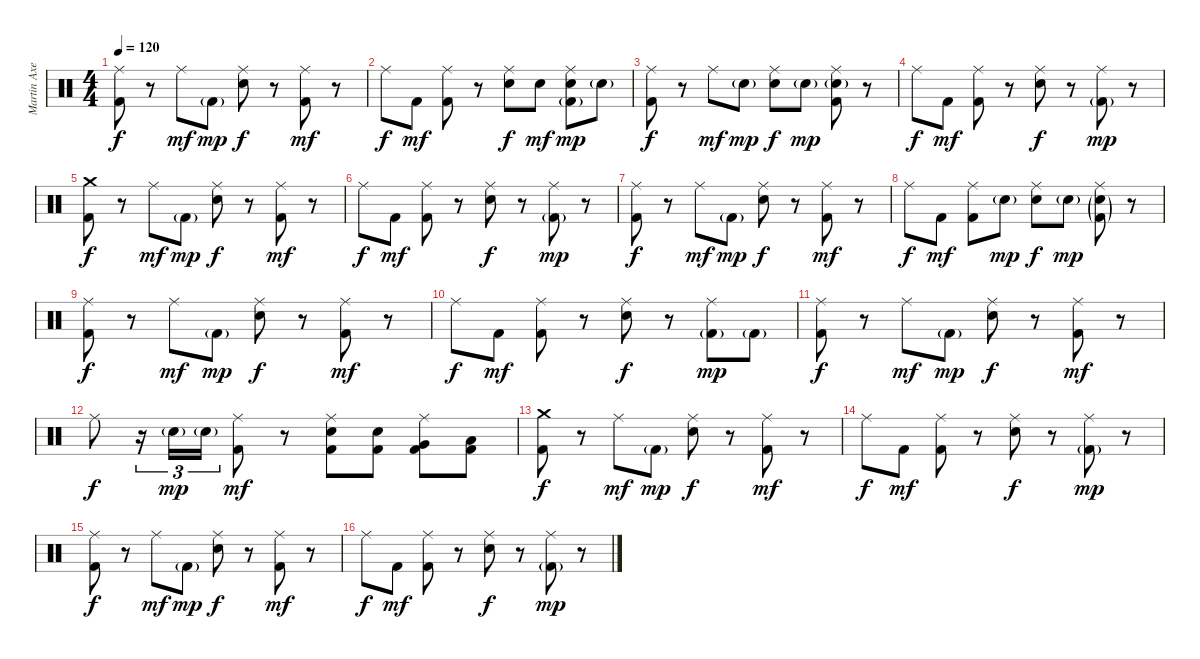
\track ("Martin Axenrot - Drums" "Martin Axe") {instrument percussion}
\staff {score}
\articulation defaults
\ts (4 4)
\tempo 120
\clef neutral
\ks c
("Ride (middle)" "Kick (hit) 2").8{dy f} r.8 "Ride (middle)".8{dy mf} "Kick (hit) 2"{g}.8{dy mp} ("Ride (middle)" "Snare (hit) 2").8{dy f} r.8 ("Ride (middle)" "Kick (hit) 2").8{dy mf} r.8 |
"Ride (middle)".8{dy f} "Kick (hit) 2".8{dy mf} ("Ride (middle)" "Kick (hit) 2").8 r.8 ("Ride (middle)" "Snare (hit) 2").8{dy f} "Snare (hit) 2".8{dy mf} ("Ride (middle)" "Snare (hit) 2" "Kick (hit) 2"{g}).8{dy mp} "Snare (hit) 2"{g}.8 |
("Ride (middle)" "Kick (hit) 2").8{dy f} r.8 "Ride (middle)".8{dy mf} "Snare (hit) 2"{g}.8{dy mp} ("Ride (middle)" "Snare (hit) 2").8{dy f} "Snare (hit) 2"{g}.8{dy mp} ("Ride (middle)" "Snare (hit) 2"{g} "Kick (hit) 2").8 r.8 |
"Ride (middle)".8{dy f} "Kick (hit) 2".8{dy mf} ("Ride (middle)" "Kick (hit) 2").8 r.8 ("Ride (middle)" "Snare (hit) 2").8{dy f} r.8 ("Ride (middle)" "Kick (hit) 2"{g}).8{dy mp} r.8 |
("Crash medium (hit)" "Kick (hit) 2").8{dy f} r.8 "Ride (middle)".8{dy mf} "Kick (hit) 2"{g}.8{dy mp} ("Ride (middle)" "Snare (hit) 2").8{dy f} r.8 ("Ride (middle)" "Kick (hit) 2").8{dy mf} r.8 |
"Ride (middle)".8{dy f} "Kick (hit) 2".8{dy mf} ("Ride (middle)" "Kick (hit) 2").8 r.8 ("Ride (middle)" "Snare (hit) 2").8{dy f} r.8 ("Ride (middle)" "Kick (hit) 2"{g}).8{dy mp} r.8 |
("Ride (middle)" "Kick (hit) 2").8{dy f} r.8 "Ride (middle)".8{dy mf} "Kick (hit) 2"{g}.8{dy mp} ("Ride (middle)" "Snare (hit) 2").8{dy f} r.8 ("Ride (middle)" "Kick (hit) 2").8{dy mf} r.8 |
"Ride (middle)".8{dy f} "Kick (hit) 2".8{dy mf} ("Ride (middle)" "Kick (hit) 2").8 "Snare (hit) 2"{g}.8{dy mp} ("Ride (middle)" "Snare (hit) 2").8{dy f} "Snare (hit) 2"{g}.8{dy mp} ("Ride (middle)" "Snare (hit) 2"{g} "Kick (hit) 2"{g}).8 r.8 |
("Ride (middle)" "Kick (hit) 2").8{dy f} r.8 "Ride (middle)".8{dy mf} "Kick (hit) 2"{g}.8{dy mp} ("Ride (middle)" "Snare (hit) 2").8{dy f} r.8 ("Ride (middle)" "Kick (hit) 2").8{dy mf} r.8 |
"Ride (middle)".8{dy f} "Kick (hit) 2".8{dy mf} ("Ride (middle)" "Kick (hit) 2").8 r.8 ("Ride (middle)" "Snare (hit) 2").8{dy f} r.8 ("Ride (middle)" "Kick (hit) 2"{g}).8{dy mp} "Kick (hit) 2"{g}.8 |
("Ride (middle)" "Kick (hit) 2").8{dy f} r.8 "Ride (middle)".8{dy mf} "Kick (hit) 2"{g}.8{dy mp} ("Ride (middle)" "Snare (hit) 2").8{dy f} r.8 ("Ride (middle)" "Kick (hit) 2").8{dy mf} r.8 |
"Ride (middle)".8{dy f} r.16{tu (3 2)} "Snare (hit) 2"{g}.16{tu (3 2) dy mp} "Snare (hit) 2"{g}.16{tu (3 2)} ("Ride (middle)" "Kick (hit) 2").8{dy mf} r.8 ("Ride (middle)" "Snare (hit) 2" "Kick (hit) 2").8 ("Snare (hit) 2" "Kick (hit) 2").8 ("Ride (middle)" "Very Low Tom (hit)" "Kick (hit) 2").8 ("Low Floor Tom (hit)" "Kick (hit) 2").8 |
("Crash medium (hit)" "Kick (hit) 2").8{dy f} r.8 "Ride (middle)".8{dy mf} "Kick (hit) 2"{g}.8{dy mp} ("Ride (middle)" "Snare (hit) 2").8{dy f} r.8 ("Ride (middle)" "Kick (hit) 2").8{dy mf} r.8 |
"Ride (middle)".8{dy f} "Kick (hit) 2".8{dy mf} ("Ride (middle)" "Kick (hit) 2").8 r.8 ("Ride (middle)" "Snare (hit) 2").8{dy f} r.8 ("Ride (middle)" "Kick (hit) 2"{g}).8{dy mp} r.8 |
("Ride (middle)" "Kick (hit) 2").8{dy f} r.8 "Ride (middle)".8{dy mf} "Kick (hit) 2"{g}.8{dy mp} ("Ride (middle)" "Snare (hit) 2").8{dy f} r.8 ("Ride (middle)" "Kick (hit) 2").8{dy mf} r.8 |
"Ride (middle)".8{dy f} "Kick (hit) 2".8{dy mf} ("Ride (middle)" "Kick (hit) 2").8 r.8 ("Ride (middle)" "Snare (hit) 2").8{dy f} r.8 ("Ride (middle)" "Kick (hit) 2"{g}).8{dy mp} r.8
